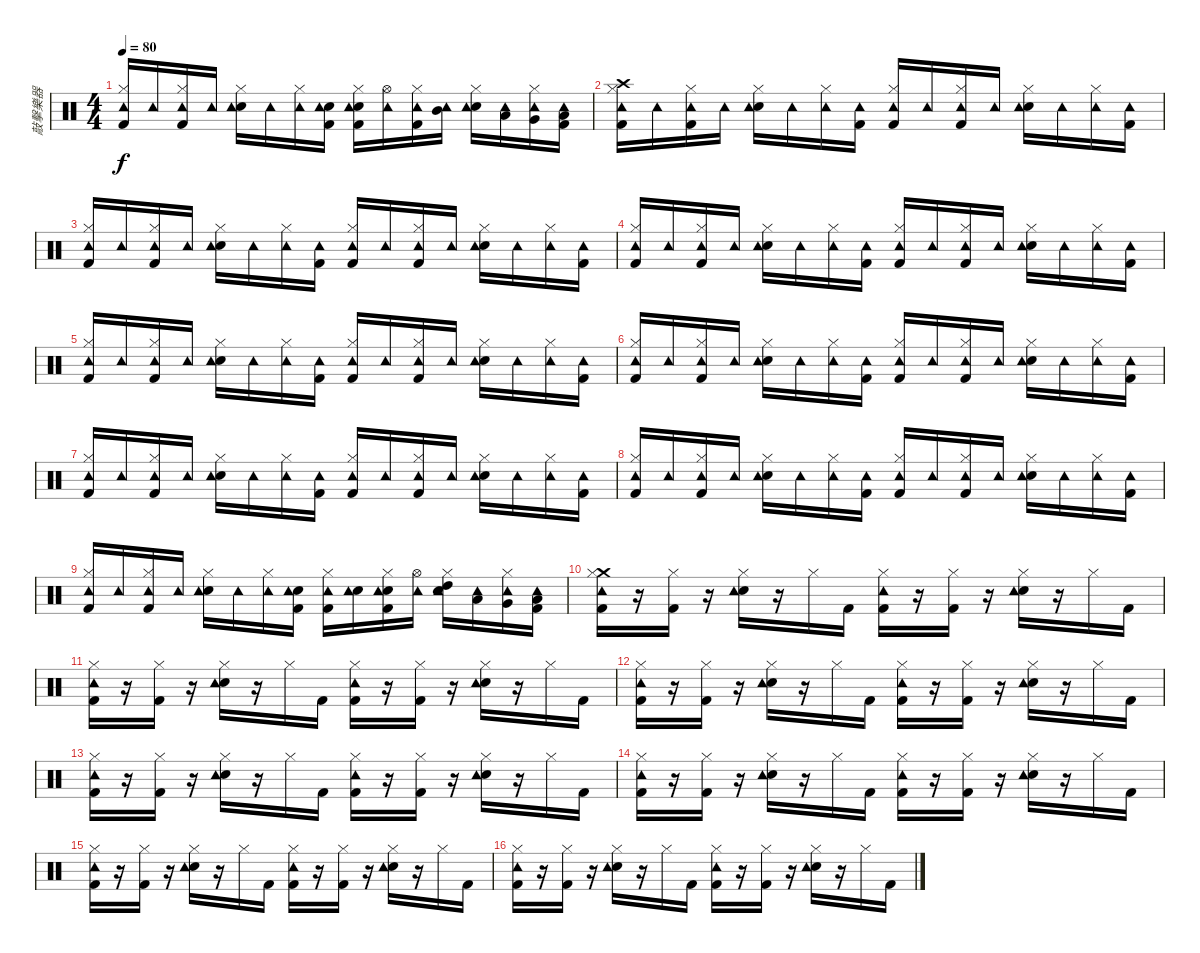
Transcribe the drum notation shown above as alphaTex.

\track ("敲擊樂器" "敲擊樂器") {instrument percussion}
\staff {score}
\articulation defaults
\ts (4 4)
\tempo 80
\clef neutral
\ks c
("Kick (hit) 2" "Hi-Hat (closed)" "Tambourine (hit)").16{dy f} "Tambourine (hit)".16 ("Kick (hit) 2" "Hi-Hat (closed)" "Tambourine (hit)").16 "Tambourine (hit)".16 ("Snare (hit) 2" "Hi-Hat (closed)" "Tambourine (hit)").16 "Tambourine (hit)".16 ("Hi-Hat (closed)" "Tambourine (hit)").16 ("Kick (hit) 2" "Snare (hit) 2" "Tambourine (hit)").16 ("Kick (hit) 2" "Electric Snare (hit)" "Hi-Hat (closed)" "Tambourine (hit)").16 ("Hi-Hat (open)" "Tambourine (hit)").16 ("Kick (hit) 2" "Hi-Hat (closed)" "Tambourine (hit)").16 ("Mid Tom (hit)" "Tambourine (hit)").16 ("Snare (hit) 2" "Hi-Hat (closed)" "Tambourine (hit)").16 ("Low Tom (hit)" "Tambourine (hit)").16 ("Very Low Tom (hit)" "Hi-Hat (closed)" "Tambourine (hit)").16 ("Kick (hit) 2" "Low Floor Tom (hit)" "Tambourine (hit)").16 |
("Kick (hit) 2" "Crash high (hit)" "Hi-Hat (closed)" "Tambourine (hit)").16 "Tambourine (hit)".16 ("Kick (hit) 2" "Hi-Hat (closed)" "Tambourine (hit)").16 "Tambourine (hit)".16 ("Snare (hit) 2" "Hi-Hat (closed)" "Tambourine (hit)").16 "Tambourine (hit)".16 ("Hi-Hat (closed)" "Tambourine (hit)").16 ("Kick (hit) 2" "Tambourine (hit)").16 ("Kick (hit) 2" "Hi-Hat (closed)" "Tambourine (hit)").16 "Tambourine (hit)".16 ("Kick (hit) 2" "Hi-Hat (closed)" "Tambourine (hit)").16 "Tambourine (hit)".16 ("Snare (hit) 2" "Hi-Hat (closed)" "Tambourine (hit)").16 "Tambourine (hit)".16 ("Hi-Hat (closed)" "Tambourine (hit)").16 ("Kick (hit) 2" "Tambourine (hit)").16 |
("Kick (hit) 2" "Hi-Hat (closed)" "Tambourine (hit)").16 "Tambourine (hit)".16 ("Kick (hit) 2" "Hi-Hat (closed)" "Tambourine (hit)").16 "Tambourine (hit)".16 ("Snare (hit) 2" "Hi-Hat (closed)" "Tambourine (hit)").16 "Tambourine (hit)".16 ("Hi-Hat (closed)" "Tambourine (hit)").16 ("Kick (hit) 2" "Tambourine (hit)").16 ("Kick (hit) 2" "Hi-Hat (closed)" "Tambourine (hit)").16 "Tambourine (hit)".16 ("Kick (hit) 2" "Hi-Hat (closed)" "Tambourine (hit)").16 "Tambourine (hit)".16 ("Snare (hit) 2" "Hi-Hat (closed)" "Tambourine (hit)").16 "Tambourine (hit)".16 ("Hi-Hat (closed)" "Tambourine (hit)").16 ("Kick (hit) 2" "Tambourine (hit)").16 |
("Kick (hit) 2" "Hi-Hat (closed)" "Tambourine (hit)").16 "Tambourine (hit)".16 ("Kick (hit) 2" "Hi-Hat (closed)" "Tambourine (hit)").16 "Tambourine (hit)".16 ("Snare (hit) 2" "Hi-Hat (closed)" "Tambourine (hit)").16 "Tambourine (hit)".16 ("Hi-Hat (closed)" "Tambourine (hit)").16 ("Kick (hit) 2" "Tambourine (hit)").16 ("Kick (hit) 2" "Hi-Hat (closed)" "Tambourine (hit)").16 "Tambourine (hit)".16 ("Kick (hit) 2" "Hi-Hat (closed)" "Tambourine (hit)").16 "Tambourine (hit)".16 ("Snare (hit) 2" "Hi-Hat (closed)" "Tambourine (hit)").16 "Tambourine (hit)".16 ("Hi-Hat (closed)" "Tambourine (hit)").16 ("Kick (hit) 2" "Tambourine (hit)").16 |
("Kick (hit) 2" "Hi-Hat (closed)" "Tambourine (hit)").16 "Tambourine (hit)".16 ("Kick (hit) 2" "Hi-Hat (closed)" "Tambourine (hit)").16 "Tambourine (hit)".16 ("Snare (hit) 2" "Hi-Hat (closed)" "Tambourine (hit)").16 "Tambourine (hit)".16 ("Hi-Hat (closed)" "Tambourine (hit)").16 ("Kick (hit) 2" "Tambourine (hit)").16 ("Kick (hit) 2" "Hi-Hat (closed)" "Tambourine (hit)").16 "Tambourine (hit)".16 ("Kick (hit) 2" "Hi-Hat (closed)" "Tambourine (hit)").16 "Tambourine (hit)".16 ("Snare (hit) 2" "Hi-Hat (closed)" "Tambourine (hit)").16 "Tambourine (hit)".16 ("Hi-Hat (closed)" "Tambourine (hit)").16 ("Kick (hit) 2" "Tambourine (hit)").16 |
("Kick (hit) 2" "Hi-Hat (closed)" "Tambourine (hit)").16 "Tambourine (hit)".16 ("Kick (hit) 2" "Hi-Hat (closed)" "Tambourine (hit)").16 "Tambourine (hit)".16 ("Snare (hit) 2" "Hi-Hat (closed)" "Tambourine (hit)").16 "Tambourine (hit)".16 ("Hi-Hat (closed)" "Tambourine (hit)").16 ("Kick (hit) 2" "Tambourine (hit)").16 ("Kick (hit) 2" "Hi-Hat (closed)" "Tambourine (hit)").16 "Tambourine (hit)".16 ("Kick (hit) 2" "Hi-Hat (closed)" "Tambourine (hit)").16 "Tambourine (hit)".16 ("Snare (hit) 2" "Hi-Hat (closed)" "Tambourine (hit)").16 "Tambourine (hit)".16 ("Hi-Hat (closed)" "Tambourine (hit)").16 ("Kick (hit) 2" "Tambourine (hit)").16 |
("Kick (hit) 2" "Hi-Hat (closed)" "Tambourine (hit)").16 "Tambourine (hit)".16 ("Kick (hit) 2" "Hi-Hat (closed)" "Tambourine (hit)").16 "Tambourine (hit)".16 ("Snare (hit) 2" "Hi-Hat (closed)" "Tambourine (hit)").16 "Tambourine (hit)".16 ("Hi-Hat (closed)" "Tambourine (hit)").16 ("Kick (hit) 2" "Tambourine (hit)").16 ("Kick (hit) 2" "Hi-Hat (closed)" "Tambourine (hit)").16 "Tambourine (hit)".16 ("Kick (hit) 2" "Hi-Hat (closed)" "Tambourine (hit)").16 "Tambourine (hit)".16 ("Snare (hit) 2" "Hi-Hat (closed)" "Tambourine (hit)").16 "Tambourine (hit)".16 ("Hi-Hat (closed)" "Tambourine (hit)").16 ("Kick (hit) 2" "Tambourine (hit)").16 |
("Kick (hit) 2" "Hi-Hat (closed)" "Tambourine (hit)").16 "Tambourine (hit)".16 ("Kick (hit) 2" "Hi-Hat (closed)" "Tambourine (hit)").16 "Tambourine (hit)".16 ("Snare (hit) 2" "Hi-Hat (closed)" "Tambourine (hit)").16 "Tambourine (hit)".16 ("Hi-Hat (closed)" "Tambourine (hit)").16 ("Kick (hit) 2" "Tambourine (hit)").16 ("Kick (hit) 2" "Hi-Hat (closed)" "Tambourine (hit)").16 "Tambourine (hit)".16 ("Kick (hit) 2" "Hi-Hat (closed)" "Tambourine (hit)").16 "Tambourine (hit)".16 ("Snare (hit) 2" "Hi-Hat (closed)" "Tambourine (hit)").16 "Tambourine (hit)".16 ("Hi-Hat (closed)" "Tambourine (hit)").16 ("Kick (hit) 2" "Tambourine (hit)").16 |
("Kick (hit) 2" "Hi-Hat (closed)" "Tambourine (hit)").16 "Tambourine (hit)".16 ("Kick (hit) 2" "Hi-Hat (closed)" "Tambourine (hit)").16 "Tambourine (hit)".16 ("Snare (hit) 2" "Hi-Hat (closed)" "Tambourine (hit)").16 "Tambourine (hit)".16 ("Hi-Hat (closed)" "Tambourine (hit)").16 ("Kick (hit) 2" "Snare (hit) 2" "Tambourine (hit)").16 ("Kick (hit) 2" "Hi-Hat (closed)" "Tambourine (hit)").16 ("Electric Snare (hit)" "Tambourine (hit)").16 ("Kick (hit) 2" "Electric Snare (hit)" "Hi-Hat (closed)" "Tambourine (hit)").16 ("Hi-Hat (open)" "Tambourine (hit)").16 ("Snare (hit) 2" "High Tom (hit)" "Hi-Hat (closed)" "Tambourine (hit)").16 ("Low Tom (hit)" "Tambourine (hit)").16 ("Very Low Tom (hit)" "Hi-Hat (closed)" "Tambourine (hit)").16 ("Kick (hit) 2" "Low Floor Tom (hit)" "Tambourine (hit)").16 |
("Kick (hit) 2" "Crash medium (hit)" "Hi-Hat (closed)" "Tambourine (hit)").16 r.16 ("Kick (hit) 2" "Hi-Hat (closed)").16 r.16 ("Snare (hit) 2" "Hi-Hat (closed)" "Tambourine (hit)").16 r.16 "Hi-Hat (closed)".16 "Kick (hit) 2".16 ("Kick (hit) 2" "Hi-Hat (closed)" "Tambourine (hit)").16 r.16 ("Kick (hit) 2" "Hi-Hat (closed)").16 r.16 ("Snare (hit) 2" "Hi-Hat (closed)" "Tambourine (hit)").16 r.16 "Hi-Hat (closed)".16 "Kick (hit) 2".16 |
("Kick (hit) 2" "Hi-Hat (closed)" "Tambourine (hit)").16 r.16 ("Kick (hit) 2" "Hi-Hat (closed)").16 r.16 ("Snare (hit) 2" "Hi-Hat (closed)" "Tambourine (hit)").16 r.16 "Hi-Hat (closed)".16 "Kick (hit) 2".16 ("Kick (hit) 2" "Hi-Hat (closed)" "Tambourine (hit)").16 r.16 ("Kick (hit) 2" "Hi-Hat (closed)").16 r.16 ("Snare (hit) 2" "Hi-Hat (closed)" "Tambourine (hit)").16 r.16 "Hi-Hat (closed)".16 "Kick (hit) 2".16 |
("Kick (hit) 2" "Hi-Hat (closed)" "Tambourine (hit)").16 r.16 ("Kick (hit) 2" "Hi-Hat (closed)").16 r.16 ("Snare (hit) 2" "Hi-Hat (closed)" "Tambourine (hit)").16 r.16 "Hi-Hat (closed)".16 "Kick (hit) 2".16 ("Kick (hit) 2" "Hi-Hat (closed)" "Tambourine (hit)").16 r.16 ("Kick (hit) 2" "Hi-Hat (closed)").16 r.16 ("Snare (hit) 2" "Hi-Hat (closed)" "Tambourine (hit)").16 r.16 "Hi-Hat (closed)".16 "Kick (hit) 2".16 |
("Kick (hit) 2" "Hi-Hat (closed)" "Tambourine (hit)").16 r.16 ("Kick (hit) 2" "Hi-Hat (closed)").16 r.16 ("Snare (hit) 2" "Hi-Hat (closed)" "Tambourine (hit)").16 r.16 "Hi-Hat (closed)".16 "Kick (hit) 2".16 ("Kick (hit) 2" "Hi-Hat (closed)" "Tambourine (hit)").16 r.16 ("Kick (hit) 2" "Hi-Hat (closed)").16 r.16 ("Snare (hit) 2" "Hi-Hat (closed)" "Tambourine (hit)").16 r.16 "Hi-Hat (closed)".16 "Kick (hit) 2".16 |
("Kick (hit) 2" "Hi-Hat (closed)" "Tambourine (hit)").16 r.16 ("Kick (hit) 2" "Hi-Hat (closed)").16 r.16 ("Snare (hit) 2" "Hi-Hat (closed)" "Tambourine (hit)").16 r.16 "Hi-Hat (closed)".16 "Kick (hit) 2".16 ("Kick (hit) 2" "Hi-Hat (closed)" "Tambourine (hit)").16 r.16 ("Kick (hit) 2" "Hi-Hat (closed)").16 r.16 ("Snare (hit) 2" "Hi-Hat (closed)" "Tambourine (hit)").16 r.16 "Hi-Hat (closed)".16 "Kick (hit) 2".16 |
("Kick (hit) 2" "Hi-Hat (closed)" "Tambourine (hit)").16 r.16 ("Kick (hit) 2" "Hi-Hat (closed)").16 r.16 ("Snare (hit) 2" "Hi-Hat (closed)" "Tambourine (hit)").16 r.16 "Hi-Hat (closed)".16 "Kick (hit) 2".16 ("Kick (hit) 2" "Hi-Hat (closed)" "Tambourine (hit)").16 r.16 ("Kick (hit) 2" "Hi-Hat (closed)").16 r.16 ("Snare (hit) 2" "Hi-Hat (closed)" "Tambourine (hit)").16 r.16 "Hi-Hat (closed)".16 "Kick (hit) 2".16 |
("Kick (hit) 2" "Hi-Hat (closed)" "Tambourine (hit)").16 r.16 ("Kick (hit) 2" "Hi-Hat (closed)").16 r.16 ("Snare (hit) 2" "Hi-Hat (closed)" "Tambourine (hit)").16 r.16 "Hi-Hat (closed)".16 "Kick (hit) 2".16 ("Kick (hit) 2" "Hi-Hat (closed)" "Tambourine (hit)").16 r.16 ("Kick (hit) 2" "Hi-Hat (closed)").16 r.16 ("Snare (hit) 2" "Hi-Hat (closed)" "Tambourine (hit)").16 r.16 "Hi-Hat (closed)".16 "Kick (hit) 2".16
